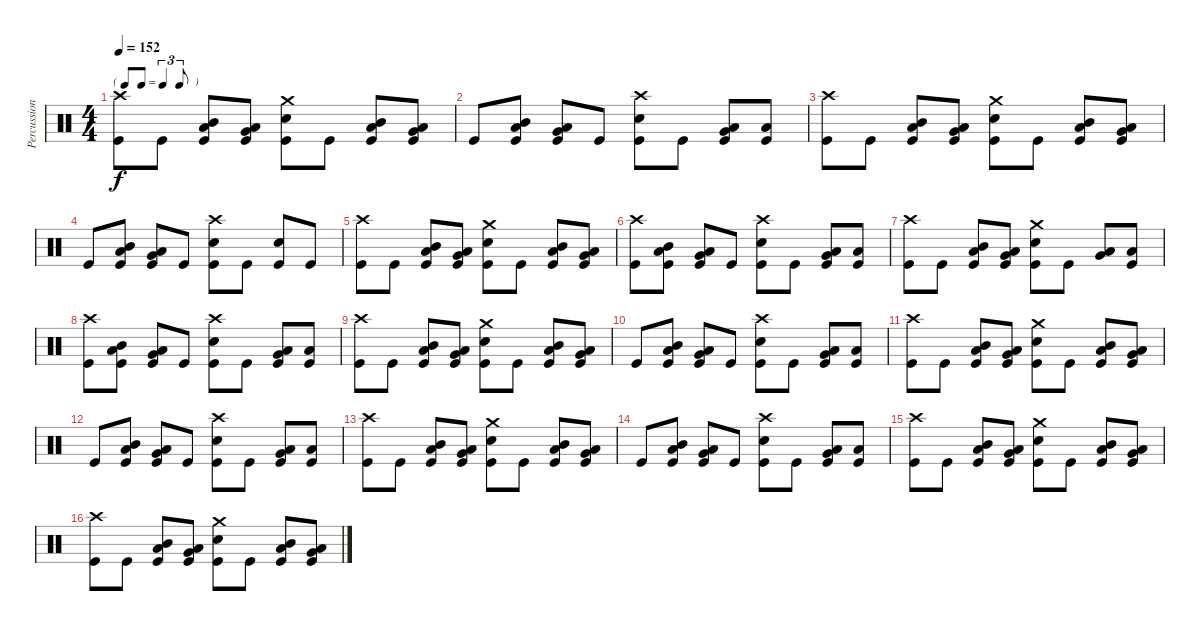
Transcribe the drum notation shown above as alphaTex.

\track ("Percussion" "Percussion") {instrument percussion}
\staff {score}
\articulation defaults
\ts (4 4)
\tf triplet8th
\tempo 152
\clef neutral
\ks c
("Crash high (hit)" "Kick (hit)").8{dy f} "Kick (hit)".8 ("Mid Tom (hit)" "Low Tom (hit)" "Kick (hit)").8 ("Low Tom (hit)" "Very Low Tom (hit)" "Kick (hit)").8 ("Snare (hit) 2" "Crash medium (hit)" "Kick (hit)").8 "Kick (hit)".8 ("Low Tom (hit)" "Mid Tom (hit)" "Kick (hit)").8 ("Low Tom (hit)" "Very Low Tom (hit)" "Kick (hit)").8 |
"Kick (hit)".8 ("Low Tom (hit)" "Mid Tom (hit)" "Kick (hit)").8 ("Very Low Tom (hit)" "Low Tom (hit)" "Kick (hit)").8 "Kick (hit)".8 ("Crash high (hit)" "Snare (hit) 2" "Kick (hit)").8 "Kick (hit)".8 ("Very Low Tom (hit)" "Low Tom (hit)" "Kick (hit)").8 ("Low Floor Tom (hit)" "Kick (hit)").8 |
("Crash high (hit)" "Kick (hit)").8 "Kick (hit)".8 ("Mid Tom (hit)" "Low Tom (hit)" "Kick (hit)").8 ("Low Tom (hit)" "Very Low Tom (hit)" "Kick (hit)").8 ("Snare (hit) 2" "Crash medium (hit)" "Kick (hit)").8 "Kick (hit)".8 ("Low Tom (hit)" "Mid Tom (hit)" "Kick (hit)").8 ("Low Tom (hit)" "Very Low Tom (hit)" "Kick (hit)").8 |
"Kick (hit)".8 ("Low Tom (hit)" "Mid Tom (hit)" "Kick (hit)").8 ("Very Low Tom (hit)" "Low Tom (hit)" "Kick (hit)").8 "Kick (hit)".8 ("Crash high (hit)" "Snare (hit) 2" "Kick (hit)").8 "Kick (hit)".8 ("Snare (hit) 2" "Kick (hit)").8 "Kick (hit)".8 |
("Crash high (hit)" "Kick (hit)").8 "Kick (hit)".8 ("Mid Tom (hit)" "Low Tom (hit)" "Kick (hit)").8 ("Low Tom (hit)" "Very Low Tom (hit)" "Kick (hit)").8 ("Snare (hit) 2" "Crash medium (hit)" "Kick (hit)").8 "Kick (hit)".8 ("Kick (hit)" "Mid Tom (hit)" "Low Tom (hit)").8 ("Very Low Tom (hit)" "Low Floor Tom (hit)" "Kick (hit)").8 |
("Crash high (hit)" "Kick (hit)").8 ("Low Tom (hit)" "Mid Tom (hit)" "Kick (hit)").8 ("Very Low Tom (hit)" "Low Tom (hit)" "Kick (hit)").8 "Kick (hit)".8 ("Crash high (hit)" "Snare (hit) 2" "Kick (hit)").8 "Kick (hit)".8 ("Very Low Tom (hit)" "Low Tom (hit)" "Kick (hit)").8 ("Low Floor Tom (hit)" "Kick (hit)").8 |
("Crash high (hit)" "Kick (hit)").8 "Kick (hit)".8 ("Mid Tom (hit)" "Low Tom (hit)" "Kick (hit)").8 ("Low Tom (hit)" "Very Low Tom (hit)" "Kick (hit)").8 ("Snare (hit) 2" "Crash medium (hit)" "Kick (hit)").8 "Kick (hit)".8 ("Very Low Tom (hit)" "Low Tom (hit)").8 ("Low Floor Tom (hit)" "Kick (hit)").8 |
("Crash high (hit)" "Kick (hit)").8 ("Low Tom (hit)" "Mid Tom (hit)" "Kick (hit)").8 ("Very Low Tom (hit)" "Low Tom (hit)" "Kick (hit)").8 "Kick (hit)".8 ("Crash high (hit)" "Snare (hit) 2" "Kick (hit)").8 "Kick (hit)".8 ("Very Low Tom (hit)" "Low Tom (hit)" "Kick (hit)").8 ("Low Floor Tom (hit)" "Kick (hit)").8 |
("Crash high (hit)" "Kick (hit)").8 "Kick (hit)".8 ("Mid Tom (hit)" "Low Tom (hit)" "Kick (hit)").8 ("Low Tom (hit)" "Very Low Tom (hit)" "Kick (hit)").8 ("Snare (hit) 2" "Crash medium (hit)" "Kick (hit)").8 "Kick (hit)".8 ("Low Tom (hit)" "Mid Tom (hit)" "Kick (hit)").8 ("Low Tom (hit)" "Very Low Tom (hit)" "Kick (hit)").8 |
"Kick (hit)".8 ("Low Tom (hit)" "Mid Tom (hit)" "Kick (hit)").8 ("Very Low Tom (hit)" "Low Tom (hit)" "Kick (hit)").8 "Kick (hit)".8 ("Crash high (hit)" "Snare (hit) 2" "Kick (hit)").8 "Kick (hit)".8 ("Very Low Tom (hit)" "Low Tom (hit)" "Kick (hit)").8 ("Low Floor Tom (hit)" "Kick (hit)").8 |
("Crash high (hit)" "Kick (hit)").8 "Kick (hit)".8 ("Mid Tom (hit)" "Low Tom (hit)" "Kick (hit)").8 ("Low Tom (hit)" "Very Low Tom (hit)" "Kick (hit)").8 ("Snare (hit) 2" "Crash medium (hit)" "Kick (hit)").8 "Kick (hit)".8 ("Low Tom (hit)" "Mid Tom (hit)" "Kick (hit)").8 ("Low Tom (hit)" "Very Low Tom (hit)" "Kick (hit)").8 |
"Kick (hit)".8 ("Low Tom (hit)" "Mid Tom (hit)" "Kick (hit)").8 ("Very Low Tom (hit)" "Low Tom (hit)" "Kick (hit)").8 "Kick (hit)".8 ("Crash high (hit)" "Snare (hit) 2" "Kick (hit)").8 "Kick (hit)".8 ("Very Low Tom (hit)" "Low Tom (hit)" "Kick (hit)").8 ("Low Floor Tom (hit)" "Kick (hit)").8 |
("Crash high (hit)" "Kick (hit)").8 "Kick (hit)".8 ("Mid Tom (hit)" "Low Tom (hit)" "Kick (hit)").8 ("Low Tom (hit)" "Very Low Tom (hit)" "Kick (hit)").8 ("Snare (hit) 2" "Crash medium (hit)" "Kick (hit)").8 "Kick (hit)".8 ("Low Tom (hit)" "Mid Tom (hit)" "Kick (hit)").8 ("Low Tom (hit)" "Very Low Tom (hit)" "Kick (hit)").8 |
"Kick (hit)".8 ("Low Tom (hit)" "Mid Tom (hit)" "Kick (hit)").8 ("Very Low Tom (hit)" "Low Tom (hit)" "Kick (hit)").8 "Kick (hit)".8 ("Crash high (hit)" "Snare (hit) 2" "Kick (hit)").8 "Kick (hit)".8 ("Very Low Tom (hit)" "Low Tom (hit)" "Kick (hit)").8 ("Low Floor Tom (hit)" "Kick (hit)").8 |
("Crash high (hit)" "Kick (hit)").8 "Kick (hit)".8 ("Mid Tom (hit)" "Low Tom (hit)" "Kick (hit)").8 ("Low Tom (hit)" "Very Low Tom (hit)" "Kick (hit)").8 ("Snare (hit) 2" "Crash medium (hit)" "Kick (hit)").8 "Kick (hit)".8 ("Low Tom (hit)" "Mid Tom (hit)" "Kick (hit)").8 ("Low Tom (hit)" "Very Low Tom (hit)" "Kick (hit)").8 |
("Crash high (hit)" "Kick (hit)").8 "Kick (hit)".8 ("Mid Tom (hit)" "Low Tom (hit)" "Kick (hit)").8 ("Low Tom (hit)" "Very Low Tom (hit)" "Kick (hit)").8 ("Snare (hit) 2" "Crash medium (hit)" "Kick (hit)").8 "Kick (hit)".8 ("Low Tom (hit)" "Mid Tom (hit)" "Kick (hit)").8 ("Low Tom (hit)" "Very Low Tom (hit)" "Kick (hit)").8
